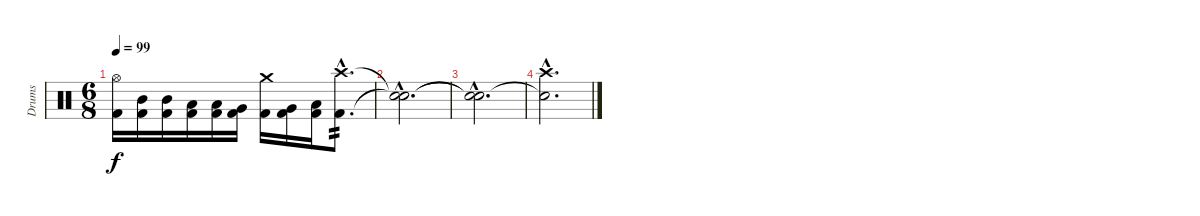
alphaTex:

\track ("Drums" "Drums") {instrument percussion}
\staff {score}
\articulation defaults
\ts (6 8)
\tempo 99
\clef neutral
\ks c
("Hi-Hat (open)" "Kick (hit) 2").16{dy f} ("Mid Tom (hit)" "Kick (hit) 2").16 ("Mid Tom (hit)" "Kick (hit) 2").16 ("Low Tom (hit)" "Kick (hit) 2").16 ("Low Tom (hit)" "Kick (hit) 2").16 ("Very Low Tom (hit)" "Kick (hit) 2").16 ("Crash medium (hit)" "Kick (hit) 2").16 ("Very Low Tom (hit)" "Kick (hit) 2").16 ("Low Floor Tom (hit)" "Kick (hit) 2").16 ("Crash high (hit)"{hac} "Kick (hit) 2"{hac}).8{d tp 2} |
("Snare (hit)"{hac t} "Snare (hit)"{hac t}).2{d} |
("Snare (hit)"{hac t} "Snare (hit)"{hac t}).2{d} |
("Crash high (hit)"{hac} "Snare (hit)"{hac t}).2{d}
